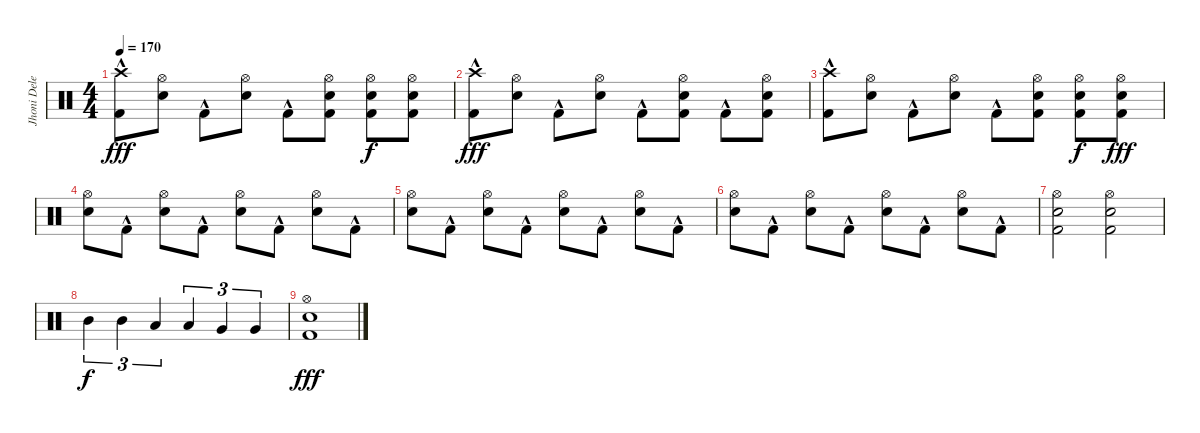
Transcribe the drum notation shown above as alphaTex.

\track ("Jhoni Delenger" "Jhoni Dele") {instrument percussion}
\staff {score}
\articulation defaults
\ts (4 4)
\tempo 170
\clef neutral
\ks c
("Kick (hit) 2"{hac} "Crash high (hit)").8{dy fff} ("Snare (hit) 2" "Hi-Hat (open)").8 "Kick (hit) 2"{hac}.8 ("Snare (hit) 2" "Hi-Hat (open)").8 "Kick (hit) 2"{hac}.8 ("Snare (hit) 2" "Hi-Hat (open)" "Kick (hit) 2").8 ("Hi-Hat (open)" "Snare (hit) 2" "Kick (hit) 2").8{dy f} ("Hi-Hat (open)" "Snare (hit) 2" "Kick (hit) 2").8 |
("Kick (hit) 2"{hac} "Crash high (hit)").8{dy fff} ("Snare (hit) 2" "Hi-Hat (open)").8 "Kick (hit) 2"{hac}.8 ("Snare (hit) 2" "Hi-Hat (open)").8 "Kick (hit) 2"{hac}.8 ("Snare (hit) 2" "Hi-Hat (open)" "Kick (hit) 2").8 "Kick (hit) 2"{hac}.8 ("Snare (hit) 2" "Hi-Hat (open)" "Kick (hit) 2").8 |
("Kick (hit) 2"{hac} "Crash high (hit)").8 ("Snare (hit) 2" "Hi-Hat (open)").8 "Kick (hit) 2"{hac}.8 ("Snare (hit) 2" "Hi-Hat (open)").8 "Kick (hit) 2"{hac}.8 ("Snare (hit) 2" "Hi-Hat (open)" "Kick (hit) 2").8 ("Hi-Hat (open)" "Snare (hit) 2" "Kick (hit) 2").8{dy f} ("Snare (hit) 2" "Hi-Hat (open)" "Kick (hit) 2").8{dy fff} |
("Snare (hit) 2" "Hi-Hat (open)").8 "Kick (hit) 2"{hac}.8 ("Snare (hit) 2" "Hi-Hat (open)").8 "Kick (hit) 2"{hac}.8 ("Snare (hit) 2" "Hi-Hat (open)").8 "Kick (hit) 2"{hac}.8 ("Snare (hit) 2" "Hi-Hat (open)").8 "Kick (hit) 2"{hac}.8 |
("Snare (hit) 2" "Hi-Hat (open)").8 "Kick (hit) 2"{hac}.8 ("Snare (hit) 2" "Hi-Hat (open)").8 "Kick (hit) 2"{hac}.8 ("Snare (hit) 2" "Hi-Hat (open)").8 "Kick (hit) 2"{hac}.8 ("Snare (hit) 2" "Hi-Hat (open)").8 "Kick (hit) 2"{hac}.8 |
("Snare (hit) 2" "Hi-Hat (open)").8 "Kick (hit) 2"{hac}.8 ("Snare (hit) 2" "Hi-Hat (open)").8 "Kick (hit) 2"{hac}.8 ("Snare (hit) 2" "Hi-Hat (open)").8 "Kick (hit) 2"{hac}.8 ("Snare (hit) 2" "Hi-Hat (open)").8 "Kick (hit) 2"{hac}.8 |
("Snare (hit) 2" "Hi-Hat (open)" "Kick (hit) 2").2 ("Snare (hit) 2" "Hi-Hat (open)" "Kick (hit) 2").2 |
"Mid Tom (hit)".4{tu (3 2) dy f} "Mid Tom (hit)".4{tu (3 2)} "Low Tom (hit)".4{tu (3 2)} "Low Tom (hit)".4{tu (3 2)} "Very Low Tom (hit)".4{tu (3 2)} "Very Low Tom (hit)".4{tu (3 2)} |
("Snare (hit) 2" "Hi-Hat (open)" "Kick (hit) 2").1{dy fff}
